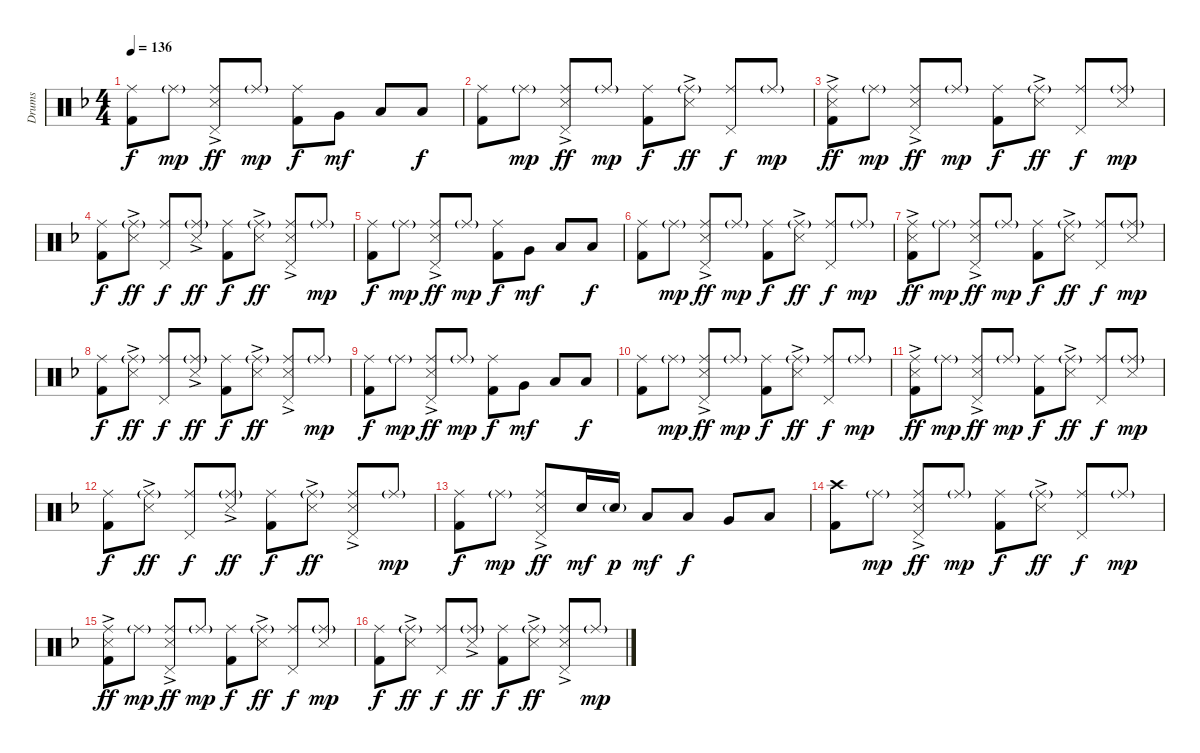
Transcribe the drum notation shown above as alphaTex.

\track ("Drums" "Drums") {instrument percussion}
\staff {score}
\articulation defaults
\ts (4 4)
\tempo 136
\clef neutral
\ks f
("Ride (middle)" "Kick (hit) 2").8{dy f} "Ride (middle)"{g}.8{dy mp} ("Ride (middle)" "Snare (side stick) 3"{ac} "Pedal Hi-Hat (hit)").8{dy ff} "Ride (middle)"{g}.8{dy mp} ("Ride (middle)" "Kick (hit) 2").8{dy f} "Very Low Tom (hit)".8{dy mf} "Low Floor Tom (hit)".8 "Low Floor Tom (hit)".8{dy f} |
("Ride (middle)" "Kick (hit) 2").8 "Ride (middle)"{g}.8{dy mp} ("Ride (middle)" "Snare (side stick) 3"{ac} "Pedal Hi-Hat (hit)").8{dy ff} "Ride (middle)"{g}.8{dy mp} ("Ride (middle)" "Kick (hit) 2").8{dy f} ("Ride (middle)"{g} "Snare (side stick) 3"{ac}).8{dy ff} ("Ride (middle)" "Pedal Hi-Hat (hit)").8{dy f} "Ride (middle)"{g}.8{dy mp} |
("Ride (middle)" "Snare (side stick) 3"{ac} "Kick (hit) 2").8{dy ff} "Ride (middle)"{g}.8{dy mp} ("Ride (middle)" "Snare (side stick) 3"{ac} "Pedal Hi-Hat (hit)").8{dy ff} "Ride (middle)"{g}.8{dy mp} ("Ride (middle)" "Kick (hit) 2").8{dy f} ("Ride (middle)"{g} "Snare (side stick) 3"{ac}).8{dy ff} ("Ride (middle)" "Pedal Hi-Hat (hit)").8{dy f} ("Ride (middle)"{g} "Snare (side stick) 3").8{dy mp} |
("Ride (middle)" "Kick (hit) 2").8{dy f} ("Ride (middle)"{g} "Snare (side stick) 3"{ac}).8{dy ff} ("Ride (middle)" "Pedal Hi-Hat (hit)").8{dy f} ("Ride (middle)"{g} "Snare (side stick) 3"{ac}).8{dy ff} ("Ride (middle)" "Kick (hit) 2").8{dy f} ("Ride (middle)"{g} "Snare (side stick) 3"{ac}).8{dy ff} ("Ride (middle)" "Snare (side stick) 3"{ac} "Pedal Hi-Hat (hit)").8 "Ride (middle)"{g}.8{dy mp} |
("Ride (middle)" "Kick (hit) 2").8{dy f} "Ride (middle)"{g}.8{dy mp} ("Ride (middle)" "Snare (side stick) 3"{ac} "Pedal Hi-Hat (hit)").8{dy ff} "Ride (middle)"{g}.8{dy mp} ("Ride (middle)" "Kick (hit) 2").8{dy f} "Very Low Tom (hit)".8{dy mf} "Low Floor Tom (hit)".8 "Low Floor Tom (hit)".8{dy f} |
("Ride (middle)" "Kick (hit) 2").8 "Ride (middle)"{g}.8{dy mp} ("Ride (middle)" "Snare (side stick) 3"{ac} "Pedal Hi-Hat (hit)").8{dy ff} "Ride (middle)"{g}.8{dy mp} ("Ride (middle)" "Kick (hit) 2").8{dy f} ("Ride (middle)"{g} "Snare (side stick) 3"{ac}).8{dy ff} ("Ride (middle)" "Pedal Hi-Hat (hit)").8{dy f} "Ride (middle)"{g}.8{dy mp} |
("Ride (middle)" "Snare (side stick) 3"{ac} "Kick (hit) 2").8{dy ff} "Ride (middle)"{g}.8{dy mp} ("Ride (middle)" "Snare (side stick) 3"{ac} "Pedal Hi-Hat (hit)").8{dy ff} "Ride (middle)"{g}.8{dy mp} ("Ride (middle)" "Kick (hit) 2").8{dy f} ("Ride (middle)"{g} "Snare (side stick) 3"{ac}).8{dy ff} ("Ride (middle)" "Pedal Hi-Hat (hit)").8{dy f} ("Ride (middle)"{g} "Snare (side stick) 3").8{dy mp} |
("Ride (middle)" "Kick (hit) 2").8{dy f} ("Ride (middle)"{g} "Snare (side stick) 3"{ac}).8{dy ff} ("Ride (middle)" "Pedal Hi-Hat (hit)").8{dy f} ("Ride (middle)"{g} "Snare (side stick) 3"{ac}).8{dy ff} ("Ride (middle)" "Kick (hit) 2").8{dy f} ("Ride (middle)"{g} "Snare (side stick) 3"{ac}).8{dy ff} ("Ride (middle)" "Snare (side stick) 3"{ac} "Pedal Hi-Hat (hit)").8 "Ride (middle)"{g}.8{dy mp} |
("Ride (middle)" "Kick (hit) 2").8{dy f} "Ride (middle)"{g}.8{dy mp} ("Ride (middle)" "Snare (side stick) 3"{ac} "Pedal Hi-Hat (hit)").8{dy ff} "Ride (middle)"{g}.8{dy mp} ("Ride (middle)" "Kick (hit) 2").8{dy f} "Very Low Tom (hit)".8{dy mf} "Low Floor Tom (hit)".8 "Low Floor Tom (hit)".8{dy f} |
("Ride (middle)" "Kick (hit) 2").8 "Ride (middle)"{g}.8{dy mp} ("Ride (middle)" "Snare (side stick) 3"{ac} "Pedal Hi-Hat (hit)").8{dy ff} "Ride (middle)"{g}.8{dy mp} ("Ride (middle)" "Kick (hit) 2").8{dy f} ("Ride (middle)"{g} "Snare (side stick) 3"{ac}).8{dy ff} ("Ride (middle)" "Pedal Hi-Hat (hit)").8{dy f} "Ride (middle)"{g}.8{dy mp} |
("Ride (middle)" "Snare (side stick) 3"{ac} "Kick (hit) 2").8{dy ff} "Ride (middle)"{g}.8{dy mp} ("Ride (middle)" "Snare (side stick) 3"{ac} "Pedal Hi-Hat (hit)").8{dy ff} "Ride (middle)"{g}.8{dy mp} ("Ride (middle)" "Kick (hit) 2").8{dy f} ("Ride (middle)"{g} "Snare (side stick) 3"{ac}).8{dy ff} ("Ride (middle)" "Pedal Hi-Hat (hit)").8{dy f} ("Ride (middle)"{g} "Snare (side stick) 3").8{dy mp} |
("Ride (middle)" "Kick (hit) 2").8{dy f} ("Ride (middle)"{g} "Snare (side stick) 3"{ac}).8{dy ff} ("Ride (middle)" "Pedal Hi-Hat (hit)").8{dy f} ("Ride (middle)"{g} "Snare (side stick) 3"{ac}).8{dy ff} ("Ride (middle)" "Kick (hit) 2").8{dy f} ("Ride (middle)"{g} "Snare (side stick) 3"{ac}).8{dy ff} ("Ride (middle)" "Snare (side stick) 3"{ac} "Pedal Hi-Hat (hit)").8 "Ride (middle)"{g}.8{dy mp} |
("Ride (middle)" "Kick (hit) 2").8{dy f} "Ride (middle)"{g}.8{dy mp} ("Ride (middle)" "Snare (side stick) 3"{ac} "Pedal Hi-Hat (hit)").8{dy ff} "Snare (hit) 2".16{dy mf} "Snare (hit) 2"{g}.16{dy p} "Low Tom (hit)".8{dy mf} "Low Tom (hit)".8{dy f} "Very Low Tom (hit)".8 "Low Floor Tom (hit)".8 |
("Crash high (hit)" "Kick (hit) 2").8 "Ride (middle)"{g}.8{dy mp} ("Ride (middle)" "Snare (side stick) 3"{ac} "Pedal Hi-Hat (hit)").8{dy ff} "Ride (middle)"{g}.8{dy mp} ("Ride (middle)" "Kick (hit) 2").8{dy f} ("Ride (middle)"{g} "Snare (side stick) 3"{ac}).8{dy ff} ("Ride (middle)" "Pedal Hi-Hat (hit)").8{dy f} "Ride (middle)"{g}.8{dy mp} |
("Ride (middle)" "Snare (side stick) 3"{ac} "Kick (hit) 2").8{dy ff} "Ride (middle)"{g}.8{dy mp} ("Ride (middle)" "Snare (side stick) 3"{ac} "Pedal Hi-Hat (hit)").8{dy ff} "Ride (middle)"{g}.8{dy mp} ("Ride (middle)" "Kick (hit) 2").8{dy f} ("Ride (middle)"{g} "Snare (side stick) 3"{ac}).8{dy ff} ("Ride (middle)" "Pedal Hi-Hat (hit)").8{dy f} ("Ride (middle)"{g} "Snare (side stick) 3").8{dy mp} |
("Ride (middle)" "Kick (hit) 2").8{dy f} ("Ride (middle)"{g} "Snare (side stick) 3"{ac}).8{dy ff} ("Ride (middle)" "Pedal Hi-Hat (hit)").8{dy f} ("Ride (middle)"{g} "Snare (side stick) 3"{ac}).8{dy ff} ("Ride (middle)" "Kick (hit) 2").8{dy f} ("Ride (middle)"{g} "Snare (side stick) 3"{ac}).8{dy ff} ("Ride (middle)" "Snare (side stick) 3"{ac} "Pedal Hi-Hat (hit)").8 "Ride (middle)"{g}.8{dy mp}
